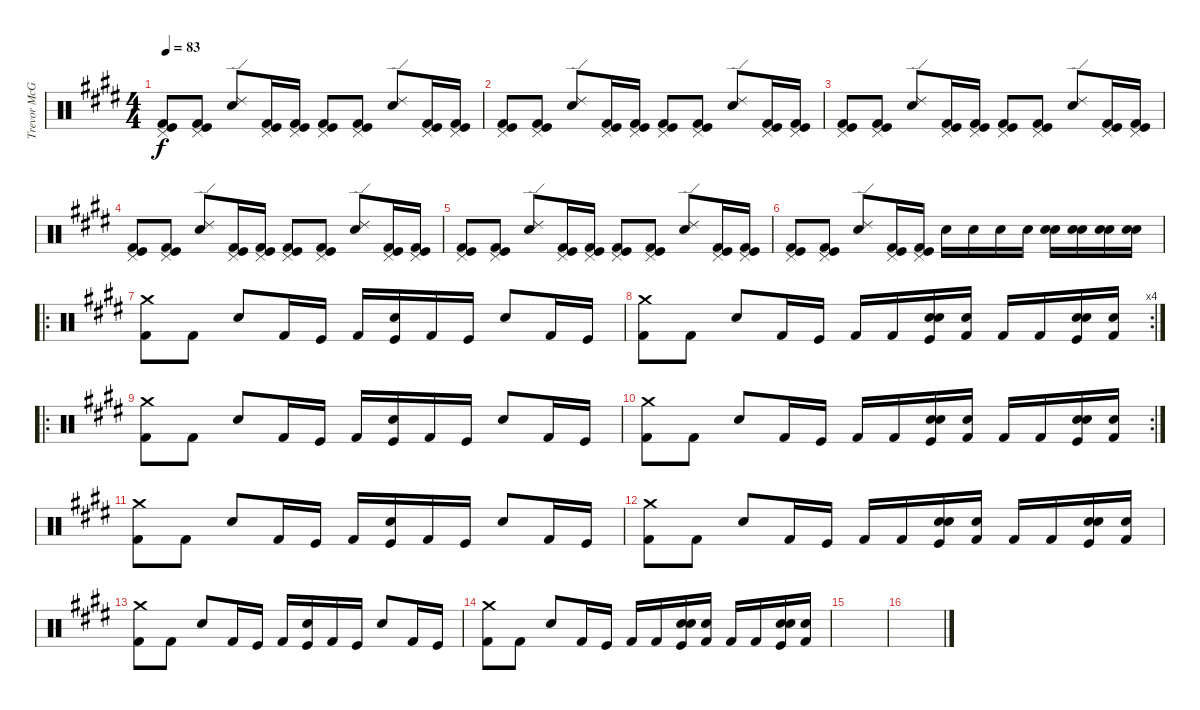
\track ("Trevor McGregor - Drums" "Trevor McG") {instrument percussion}
\staff {score}
\articulation defaults
\ts (4 4)
\tempo 83
\clef neutral
\ks e
("Kick (hit) 2" "Pedal Hi-Hat (hit)" "Kick (hit)").8{dy f} ("Kick (hit) 2" "Pedal Hi-Hat (hit)" "Kick (hit)").8 ("Ride (edge) 2" "Electric Snare (hit)").8 ("Kick (hit) 2" "Pedal Hi-Hat (hit)" "Kick (hit)").16 ("Kick (hit) 2" "Pedal Hi-Hat (hit)" "Kick (hit)").16 ("Kick (hit) 2" "Pedal Hi-Hat (hit)" "Kick (hit)").8 ("Kick (hit) 2" "Pedal Hi-Hat (hit)" "Kick (hit)").8 ("Ride (edge) 2" "Electric Snare (hit)").8 ("Kick (hit) 2" "Pedal Hi-Hat (hit)" "Kick (hit)").16 ("Kick (hit) 2" "Pedal Hi-Hat (hit)" "Kick (hit)").16 |
("Kick (hit) 2" "Pedal Hi-Hat (hit)" "Kick (hit)").8 ("Kick (hit) 2" "Pedal Hi-Hat (hit)" "Kick (hit)").8 ("Ride (edge) 2" "Electric Snare (hit)").8 ("Kick (hit) 2" "Pedal Hi-Hat (hit)" "Kick (hit)").16 ("Kick (hit) 2" "Pedal Hi-Hat (hit)" "Kick (hit)").16 ("Kick (hit) 2" "Pedal Hi-Hat (hit)" "Kick (hit)").8 ("Kick (hit) 2" "Pedal Hi-Hat (hit)" "Kick (hit)").8 ("Ride (edge) 2" "Electric Snare (hit)").8 ("Kick (hit) 2" "Pedal Hi-Hat (hit)" "Kick (hit)").16 ("Kick (hit) 2" "Pedal Hi-Hat (hit)" "Kick (hit)").16 |
("Kick (hit) 2" "Pedal Hi-Hat (hit)" "Kick (hit)").8 ("Kick (hit) 2" "Pedal Hi-Hat (hit)" "Kick (hit)").8 ("Ride (edge) 2" "Electric Snare (hit)").8 ("Kick (hit) 2" "Pedal Hi-Hat (hit)" "Kick (hit)").16 ("Kick (hit) 2" "Pedal Hi-Hat (hit)" "Kick (hit)").16 ("Kick (hit) 2" "Pedal Hi-Hat (hit)" "Kick (hit)").8 ("Kick (hit) 2" "Pedal Hi-Hat (hit)" "Kick (hit)").8 ("Ride (edge) 2" "Electric Snare (hit)").8 ("Kick (hit) 2" "Pedal Hi-Hat (hit)" "Kick (hit)").16 ("Kick (hit) 2" "Pedal Hi-Hat (hit)" "Kick (hit)").16 |
("Kick (hit) 2" "Pedal Hi-Hat (hit)" "Kick (hit)").8 ("Kick (hit) 2" "Pedal Hi-Hat (hit)" "Kick (hit)").8 ("Ride (edge) 2" "Electric Snare (hit)").8 ("Kick (hit) 2" "Pedal Hi-Hat (hit)" "Kick (hit)").16 ("Kick (hit) 2" "Pedal Hi-Hat (hit)" "Kick (hit)").16 ("Kick (hit) 2" "Pedal Hi-Hat (hit)" "Kick (hit)").8 ("Kick (hit) 2" "Pedal Hi-Hat (hit)" "Kick (hit)").8 ("Ride (edge) 2" "Electric Snare (hit)").8 ("Kick (hit) 2" "Pedal Hi-Hat (hit)" "Kick (hit)").16 ("Kick (hit) 2" "Pedal Hi-Hat (hit)" "Kick (hit)").16 |
("Kick (hit) 2" "Pedal Hi-Hat (hit)" "Kick (hit)").8 ("Kick (hit) 2" "Pedal Hi-Hat (hit)" "Kick (hit)").8 ("Ride (edge) 2" "Electric Snare (hit)").8 ("Kick (hit) 2" "Pedal Hi-Hat (hit)" "Kick (hit)").16 ("Kick (hit) 2" "Pedal Hi-Hat (hit)" "Kick (hit)").16 ("Kick (hit) 2" "Pedal Hi-Hat (hit)" "Kick (hit)").8 ("Kick (hit) 2" "Pedal Hi-Hat (hit)" "Kick (hit)").8 ("Ride (edge) 2" "Electric Snare (hit)").8 ("Kick (hit) 2" "Pedal Hi-Hat (hit)" "Kick (hit)").16 ("Kick (hit) 2" "Pedal Hi-Hat (hit)" "Kick (hit)").16 |
("Kick (hit) 2" "Pedal Hi-Hat (hit)" "Kick (hit)").8 ("Kick (hit) 2" "Pedal Hi-Hat (hit)" "Kick (hit)").8 ("Ride (edge) 2" "Electric Snare (hit)").8 ("Kick (hit) 2" "Pedal Hi-Hat (hit)" "Kick (hit)").16 ("Kick (hit) 2" "Pedal Hi-Hat (hit)" "Kick (hit)").16 "Electric Snare (hit)".16 "Electric Snare (hit)".16 "Electric Snare (hit)".16 "Electric Snare (hit)".16 ("Snare (hit) 2" "Electric Snare (hit)").16 ("Snare (hit) 2" "Electric Snare (hit)").16 ("Snare (hit) 2" "Electric Snare (hit)").16 ("Snare (hit) 2" "Electric Snare (hit)").16 |
\ro
\ks c#minor
("Crash medium (hit)" "Kick (hit) 2").8 "Kick (hit) 2".8 "Electric Snare (hit)".8 "Kick (hit) 2".16 "Kick (hit)".16 "Kick (hit) 2".16 ("Electric Snare (hit)" "Kick (hit)").16 "Kick (hit) 2".16 "Kick (hit)".16 "Electric Snare (hit)".8 "Kick (hit) 2".16 "Kick (hit)".16 |
\rc 4
("Crash medium (hit)" "Kick (hit) 2").8 "Kick (hit) 2".8 "Electric Snare (hit)".8 "Kick (hit) 2".16 "Kick (hit)".16 "Kick (hit) 2".16 "Kick (hit) 2".16 ("Snare (hit) 2" "Electric Snare (hit)" "Kick (hit)").16 ("Snare (hit) 2" "Kick (hit) 2").16 "Kick (hit) 2".16 "Kick (hit) 2".16 ("Snare (hit) 2" "Electric Snare (hit)" "Kick (hit)").16 ("Snare (hit) 2" "Kick (hit) 2").16 |
\ro
("Crash medium (hit)" "Kick (hit) 2").8 "Kick (hit) 2".8 "Electric Snare (hit)".8 "Kick (hit) 2".16 "Kick (hit)".16 "Kick (hit) 2".16 ("Electric Snare (hit)" "Kick (hit)").16 "Kick (hit) 2".16 "Kick (hit)".16 "Electric Snare (hit)".8 "Kick (hit) 2".16 "Kick (hit)".16 |
\rc 2
("Crash medium (hit)" "Kick (hit) 2").8 "Kick (hit) 2".8 "Electric Snare (hit)".8 "Kick (hit) 2".16 "Kick (hit)".16 "Kick (hit) 2".16 "Kick (hit) 2".16 ("Snare (hit) 2" "Electric Snare (hit)" "Kick (hit)").16 ("Snare (hit) 2" "Kick (hit) 2").16 "Kick (hit) 2".16 "Kick (hit) 2".16 ("Snare (hit) 2" "Electric Snare (hit)" "Kick (hit)").16 ("Snare (hit) 2" "Kick (hit) 2").16 |
("Crash medium (hit)" "Kick (hit) 2").8 "Kick (hit) 2".8 "Electric Snare (hit)".8 "Kick (hit) 2".16 "Kick (hit)".16 "Kick (hit) 2".16 ("Electric Snare (hit)" "Kick (hit)").16 "Kick (hit) 2".16 "Kick (hit)".16 "Electric Snare (hit)".8 "Kick (hit) 2".16 "Kick (hit)".16 |
("Crash medium (hit)" "Kick (hit) 2").8 "Kick (hit) 2".8 "Electric Snare (hit)".8 "Kick (hit) 2".16 "Kick (hit)".16 "Kick (hit) 2".16 "Kick (hit) 2".16 ("Snare (hit) 2" "Electric Snare (hit)" "Kick (hit)").16 ("Snare (hit) 2" "Kick (hit) 2").16 "Kick (hit) 2".16 "Kick (hit) 2".16 ("Snare (hit) 2" "Electric Snare (hit)" "Kick (hit)").16 ("Snare (hit) 2" "Kick (hit) 2").16 |
("Crash medium (hit)" "Kick (hit) 2").8 "Kick (hit) 2".8 "Electric Snare (hit)".8 "Kick (hit) 2".16 "Kick (hit)".16 "Kick (hit) 2".16 ("Electric Snare (hit)" "Kick (hit)").16 "Kick (hit) 2".16 "Kick (hit)".16 "Electric Snare (hit)".8 "Kick (hit) 2".16 "Kick (hit)".16 |
("Crash medium (hit)" "Kick (hit) 2").8 "Kick (hit) 2".8 "Electric Snare (hit)".8 "Kick (hit) 2".16 "Kick (hit)".16 "Kick (hit) 2".16 "Kick (hit) 2".16 ("Snare (hit) 2" "Electric Snare (hit)" "Kick (hit)").16 ("Snare (hit) 2" "Kick (hit) 2").16 "Kick (hit) 2".16 "Kick (hit) 2".16 ("Snare (hit) 2" "Electric Snare (hit)" "Kick (hit)").16 ("Snare (hit) 2" "Kick (hit) 2").16 |
\ks e
|
\ks c#minor
